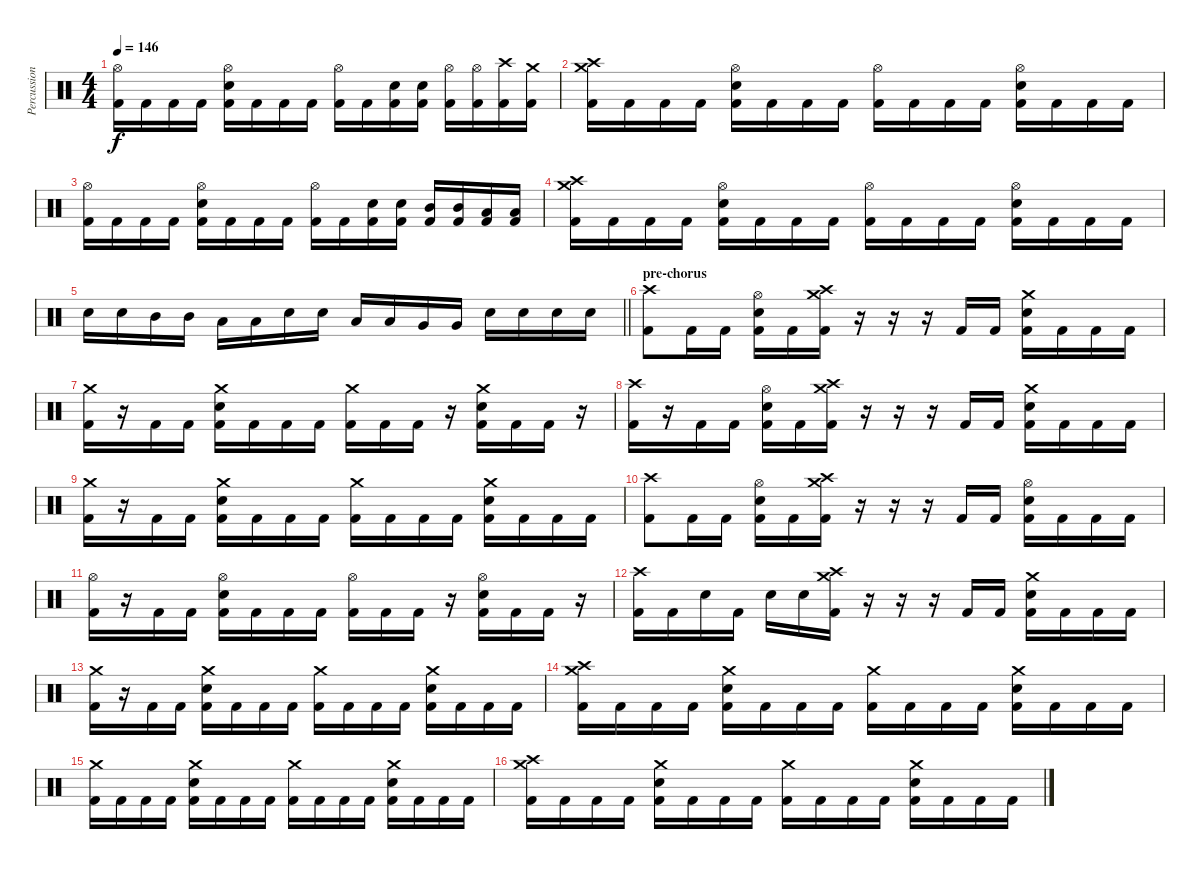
\track ("Percussion" "Percussion") {instrument percussion}
\staff {score}
\articulation defaults
\ts (4 4)
\tempo 146
\clef neutral
\ks c
("Hi-Hat (open)" "Kick (hit) 2").16{dy f} "Kick (hit) 2".16 "Kick (hit) 2".16 "Kick (hit) 2".16 ("Hi-Hat (open)" "Snare (hit) 2" "Kick (hit) 2").16 "Kick (hit) 2".16 "Kick (hit) 2".16 "Kick (hit) 2".16 ("Hi-Hat (open)" "Kick (hit) 2").16 "Kick (hit) 2".16 ("Snare (hit) 2" "Kick (hit) 2").16 ("Snare (hit) 2" "Kick (hit) 2").16 ("Hi-Hat (open)" "Kick (hit) 2").16 ("Hi-Hat (open)" "Kick (hit) 2").16 ("Crash high (hit)" "Kick (hit) 2").16 ("Crash medium (hit)" "Kick (hit) 2").16 |
("Crash high (hit)" "Crash medium (hit)" "Kick (hit) 2").16 "Kick (hit) 2".16 "Kick (hit) 2".16 "Kick (hit) 2".16 ("Hi-Hat (open)" "Snare (hit) 2" "Kick (hit) 2").16 "Kick (hit) 2".16 "Kick (hit) 2".16 "Kick (hit) 2".16 ("Hi-Hat (open)" "Kick (hit) 2").16 "Kick (hit) 2".16 "Kick (hit) 2".16 "Kick (hit) 2".16 ("Hi-Hat (open)" "Snare (hit) 2" "Kick (hit) 2").16 "Kick (hit) 2".16 "Kick (hit) 2".16 "Kick (hit) 2".16 |
("Hi-Hat (open)" "Kick (hit) 2").16 "Kick (hit) 2".16 "Kick (hit) 2".16 "Kick (hit) 2".16 ("Hi-Hat (open)" "Snare (hit) 2" "Kick (hit) 2").16 "Kick (hit) 2".16 "Kick (hit) 2".16 "Kick (hit) 2".16 ("Hi-Hat (open)" "Kick (hit) 2").16 "Kick (hit) 2".16 ("Snare (hit) 2" "Kick (hit) 2").16 ("Snare (hit) 2" "Kick (hit) 2").16 ("Mid Tom (hit)" "Kick (hit) 2").16 ("Mid Tom (hit)" "Kick (hit) 2").16 ("Low Tom (hit)" "Kick (hit) 2").16 ("Low Tom (hit)" "Kick (hit) 2").16 |
("Crash high (hit)" "Crash medium (hit)" "Kick (hit) 2").16 "Kick (hit) 2".16 "Kick (hit) 2".16 "Kick (hit) 2".16 ("Hi-Hat (open)" "Snare (hit) 2" "Kick (hit) 2").16 "Kick (hit) 2".16 "Kick (hit) 2".16 "Kick (hit) 2".16 ("Hi-Hat (open)" "Kick (hit) 2").16 "Kick (hit) 2".16 "Kick (hit) 2".16 "Kick (hit) 2".16 ("Hi-Hat (open)" "Snare (hit) 2" "Kick (hit) 2").16 "Kick (hit) 2".16 "Kick (hit) 2".16 "Kick (hit) 2".16 |
\barLineRight lightlight "Snare (hit) 2".16 "Snare (hit) 2".16 "Mid Tom (hit)".16 "Mid Tom (hit)".16 "Low Tom (hit)".16 "Low Tom (hit)".16 "Snare (hit) 2".16 "Snare (hit) 2".16 "Low Tom (hit)".16 "Low Tom (hit)".16 "Very Low Tom (hit)".16 "Very Low Tom (hit)".16 "Snare (hit) 2".16 "Snare (hit) 2".16 "Snare (hit) 2".16 "Snare (hit) 2".16
|
\section ("" "pre-chorus")
("Crash high (hit)" "Kick (hit) 2").8 "Kick (hit) 2".16 "Kick (hit) 2".16 ("Hi-Hat (open)" "Snare (hit) 2" "Kick (hit) 2").16 "Kick (hit) 2".16 ("Crash high (hit)" "Crash medium (hit)" "Kick (hit) 2").16 r.16 r.16 r.16 "Kick (hit) 2".16 "Kick (hit) 2".16 ("Crash medium (hit)" "Snare (hit) 2" "Kick (hit) 2").16 "Kick (hit) 2".16 "Kick (hit) 2".16 "Kick (hit) 2".16 |
("Crash medium (hit)" "Kick (hit) 2").16 r.16 "Kick (hit) 2".16 "Kick (hit) 2".16 ("Crash medium (hit)" "Snare (hit) 2" "Kick (hit) 2").16 "Kick (hit) 2".16 "Kick (hit) 2".16 "Kick (hit) 2".16 ("Crash medium (hit)" "Kick (hit) 2").16 "Kick (hit) 2".16 "Kick (hit) 2".16 r.16 ("Crash medium (hit)" "Snare (hit) 2" "Kick (hit) 2").16 "Kick (hit) 2".16 "Kick (hit) 2".16 r.16 |
("Crash high (hit)" "Kick (hit) 2").16 r.16 "Kick (hit) 2".16 "Kick (hit) 2".16 ("Hi-Hat (open)" "Snare (hit) 2" "Kick (hit) 2").16 "Kick (hit) 2".16 ("Crash high (hit)" "Crash medium (hit)" "Kick (hit) 2").16 r.16 r.16 r.16 "Kick (hit) 2".16 "Kick (hit) 2".16 ("Crash medium (hit)" "Snare (hit) 2" "Kick (hit) 2").16 "Kick (hit) 2".16 "Kick (hit) 2".16 "Kick (hit) 2".16 |
("Crash medium (hit)" "Kick (hit) 2").16 r.16 "Kick (hit) 2".16 "Kick (hit) 2".16 ("Crash medium (hit)" "Snare (hit) 2" "Kick (hit) 2").16 "Kick (hit) 2".16 "Kick (hit) 2".16 "Kick (hit) 2".16 ("Crash medium (hit)" "Kick (hit) 2").16 "Kick (hit) 2".16 "Kick (hit) 2".16 "Kick (hit) 2".16 ("Crash medium (hit)" "Snare (hit) 2" "Kick (hit) 2").16 "Kick (hit) 2".16 "Kick (hit) 2".16 "Kick (hit) 2".16 |
("Crash high (hit)" "Kick (hit) 2").8 "Kick (hit) 2".16 "Kick (hit) 2".16 ("Hi-Hat (open)" "Snare (hit) 2" "Kick (hit) 2").16 "Kick (hit) 2".16 ("Crash high (hit)" "Crash medium (hit)" "Kick (hit) 2").16 r.16 r.16 r.16 "Kick (hit) 2".16 "Kick (hit) 2".16 ("Hi-Hat (open)" "Snare (hit) 2" "Kick (hit) 2").16 "Kick (hit) 2".16 "Kick (hit) 2".16 "Kick (hit) 2".16 |
("Hi-Hat (open)" "Kick (hit) 2").16 r.16 "Kick (hit) 2".16 "Kick (hit) 2".16 ("Hi-Hat (open)" "Snare (hit) 2" "Kick (hit) 2").16 "Kick (hit) 2".16 "Kick (hit) 2".16 "Kick (hit) 2".16 ("Hi-Hat (open)" "Kick (hit) 2").16 "Kick (hit) 2".16 "Kick (hit) 2".16 r.16 ("Hi-Hat (open)" "Snare (hit) 2" "Kick (hit) 2").16 "Kick (hit) 2".16 "Kick (hit) 2".16 r.16 |
("Crash high (hit)" "Kick (hit) 2").16 "Kick (hit) 2".16 "Snare (hit) 2".16 "Kick (hit) 2".16 "Snare (hit) 2".16 "Snare (hit) 2".16 ("Crash high (hit)" "Crash medium (hit)" "Kick (hit) 2").16 r.16 r.16 r.16 "Kick (hit) 2".16 "Kick (hit) 2".16 ("Crash medium (hit)" "Snare (hit) 2" "Kick (hit) 2").16 "Kick (hit) 2".16 "Kick (hit) 2".16 "Kick (hit) 2".16 |
("Crash medium (hit)" "Kick (hit) 2").16 r.16 "Kick (hit) 2".16 "Kick (hit) 2".16 ("Crash medium (hit)" "Snare (hit) 2" "Kick (hit) 2").16 "Kick (hit) 2".16 "Kick (hit) 2".16 "Kick (hit) 2".16 ("Crash medium (hit)" "Kick (hit) 2").16 "Kick (hit) 2".16 "Kick (hit) 2".16 "Kick (hit) 2".16 ("Crash medium (hit)" "Snare (hit) 2" "Kick (hit) 2").16 "Kick (hit) 2".16 "Kick (hit) 2".16 "Kick (hit) 2".16 |
("Crash high (hit)" "Crash medium (hit)" "Kick (hit) 2").16 "Kick (hit) 2".16 "Kick (hit) 2".16 "Kick (hit) 2".16 ("Crash medium (hit)" "Snare (hit) 2" "Kick (hit) 2").16 "Kick (hit) 2".16 "Kick (hit) 2".16 "Kick (hit) 2".16 ("Crash medium (hit)" "Kick (hit) 2").16 "Kick (hit) 2".16 "Kick (hit) 2".16 "Kick (hit) 2".16 ("Crash medium (hit)" "Snare (hit) 2" "Kick (hit) 2").16 "Kick (hit) 2".16 "Kick (hit) 2".16 "Kick (hit) 2".16 |
("Crash medium (hit)" "Kick (hit) 2").16 "Kick (hit) 2".16 "Kick (hit) 2".16 "Kick (hit) 2".16 ("Crash medium (hit)" "Snare (hit) 2" "Kick (hit) 2").16 "Kick (hit) 2".16 "Kick (hit) 2".16 "Kick (hit) 2".16 ("Crash medium (hit)" "Kick (hit) 2").16 "Kick (hit) 2".16 "Kick (hit) 2".16 "Kick (hit) 2".16 ("Crash medium (hit)" "Snare (hit) 2" "Kick (hit) 2").16 "Kick (hit) 2".16 "Kick (hit) 2".16 "Kick (hit) 2".16 |
("Crash high (hit)" "Crash medium (hit)" "Kick (hit) 2").16 "Kick (hit) 2".16 "Kick (hit) 2".16 "Kick (hit) 2".16 ("Crash medium (hit)" "Snare (hit) 2" "Kick (hit) 2").16 "Kick (hit) 2".16 "Kick (hit) 2".16 "Kick (hit) 2".16 ("Crash medium (hit)" "Kick (hit) 2").16 "Kick (hit) 2".16 "Kick (hit) 2".16 "Kick (hit) 2".16 ("Crash medium (hit)" "Snare (hit) 2" "Kick (hit) 2").16 "Kick (hit) 2".16 "Kick (hit) 2".16 "Kick (hit) 2".16
